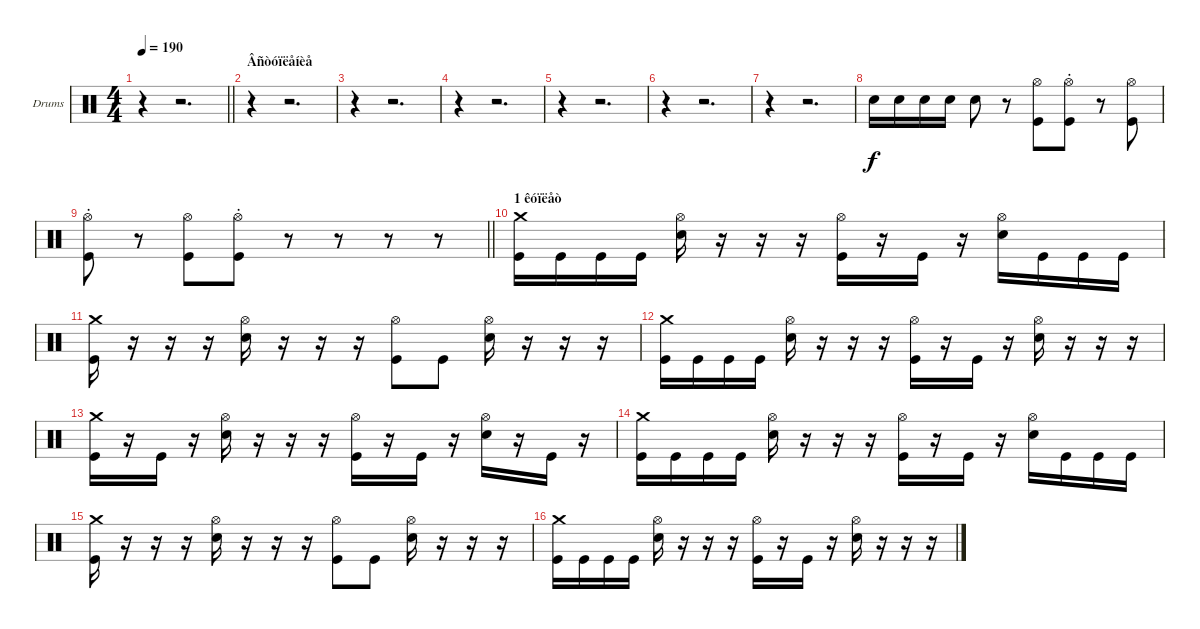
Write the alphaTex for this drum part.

\bracketExtendMode groupsimilarinstruments
\firstSystemTrackNameOrientation horizontal
\otherSystemsTrackNameOrientation horizontal
\track ("Drumkit" "Drums") {instrument percussion}
\staff {score}
\articulation defaults
\ts (4 4)
\beaming (8 2 2 2 2)
\tempo 190
\clef neutral
\barLineRight lightlight
\ks c
r.4{dy f} r.2{d} |
\section ("" "Âñòóïëåíèå")
r.4 r.2{d} |
r.4 r.2{d} |
r.4 r.2{d} |
r.4 r.2{d} |
r.4 r.2{d} |
r.4 r.2{d} |
"Snare (hit) 2".16 "Snare (hit) 2".16 "Snare (hit) 2".16 "Snare (hit) 2".16 "Snare (hit) 2".8 r.8 ("Hi-Hat (open)" "Kick (hit)").8 ("Hi-Hat (open)"{st} "Kick (hit)").8 r.8 ("Hi-Hat (open)" "Kick (hit)").8 |
\barLineRight lightlight
("Hi-Hat (open)"{st} "Kick (hit)").8 r.8 ("Hi-Hat (open)" "Kick (hit)").8 ("Hi-Hat (open)"{st} "Kick (hit)").8 r.8 r.8 r.8 r.8 |
\section ("" "1 êóïëåò")
("Crash medium (hit)" "Kick (hit)").16 "Kick (hit)".16 "Kick (hit)".16 "Kick (hit)".16 ("Hi-Hat (open)" "Snare (hit) 2").16 r.16 r.16 r.16 ("Hi-Hat (open)" "Kick (hit)").16 r.16 "Kick (hit)".16 r.16 ("Hi-Hat (open)" "Snare (hit) 2").16 "Kick (hit)".16 "Kick (hit)".16 "Kick (hit)".16 |
("Crash medium (hit)" "Kick (hit)").16 r.16 r.16 r.16 ("Hi-Hat (open)" "Snare (hit) 2").16 r.16 r.16 r.16 ("Hi-Hat (open)" "Kick (hit)").8 "Kick (hit)".8 ("Hi-Hat (open)" "Snare (hit) 2").16 r.16 r.16 r.16 |
("Crash medium (hit)" "Kick (hit)").16 "Kick (hit)".16 "Kick (hit)".16 "Kick (hit)".16 ("Hi-Hat (open)" "Snare (hit) 2").16 r.16 r.16 r.16 ("Hi-Hat (open)" "Kick (hit)").16 r.16 "Kick (hit)".16 r.16 ("Hi-Hat (open)" "Snare (hit) 2").16 r.16 r.16 r.16 |
("Crash medium (hit)" "Kick (hit)").16 r.16 "Kick (hit)".16 r.16 ("Hi-Hat (open)" "Snare (hit) 2").16 r.16 r.16 r.16 ("Hi-Hat (open)" "Kick (hit)").16 r.16 "Kick (hit)".16 r.16 ("Hi-Hat (open)" "Snare (hit) 2").16 r.16 "Kick (hit)".16 r.16 |
("Crash medium (hit)" "Kick (hit)").16 "Kick (hit)".16 "Kick (hit)".16 "Kick (hit)".16 ("Hi-Hat (open)" "Snare (hit) 2").16 r.16 r.16 r.16 ("Hi-Hat (open)" "Kick (hit)").16 r.16 "Kick (hit)".16 r.16 ("Hi-Hat (open)" "Snare (hit) 2").16 "Kick (hit)".16 "Kick (hit)".16 "Kick (hit)".16 |
("Crash medium (hit)" "Kick (hit)").16 r.16 r.16 r.16 ("Hi-Hat (open)" "Snare (hit) 2").16 r.16 r.16 r.16 ("Hi-Hat (open)" "Kick (hit)").8 "Kick (hit)".8 ("Hi-Hat (open)" "Snare (hit) 2").16 r.16 r.16 r.16 |
("Crash medium (hit)" "Kick (hit)").16 "Kick (hit)".16 "Kick (hit)".16 "Kick (hit)".16 ("Hi-Hat (open)" "Snare (hit) 2").16 r.16 r.16 r.16 ("Hi-Hat (open)" "Kick (hit)").16 r.16 "Kick (hit)".16 r.16 ("Hi-Hat (open)" "Snare (hit) 2").16 r.16 r.16 r.16
